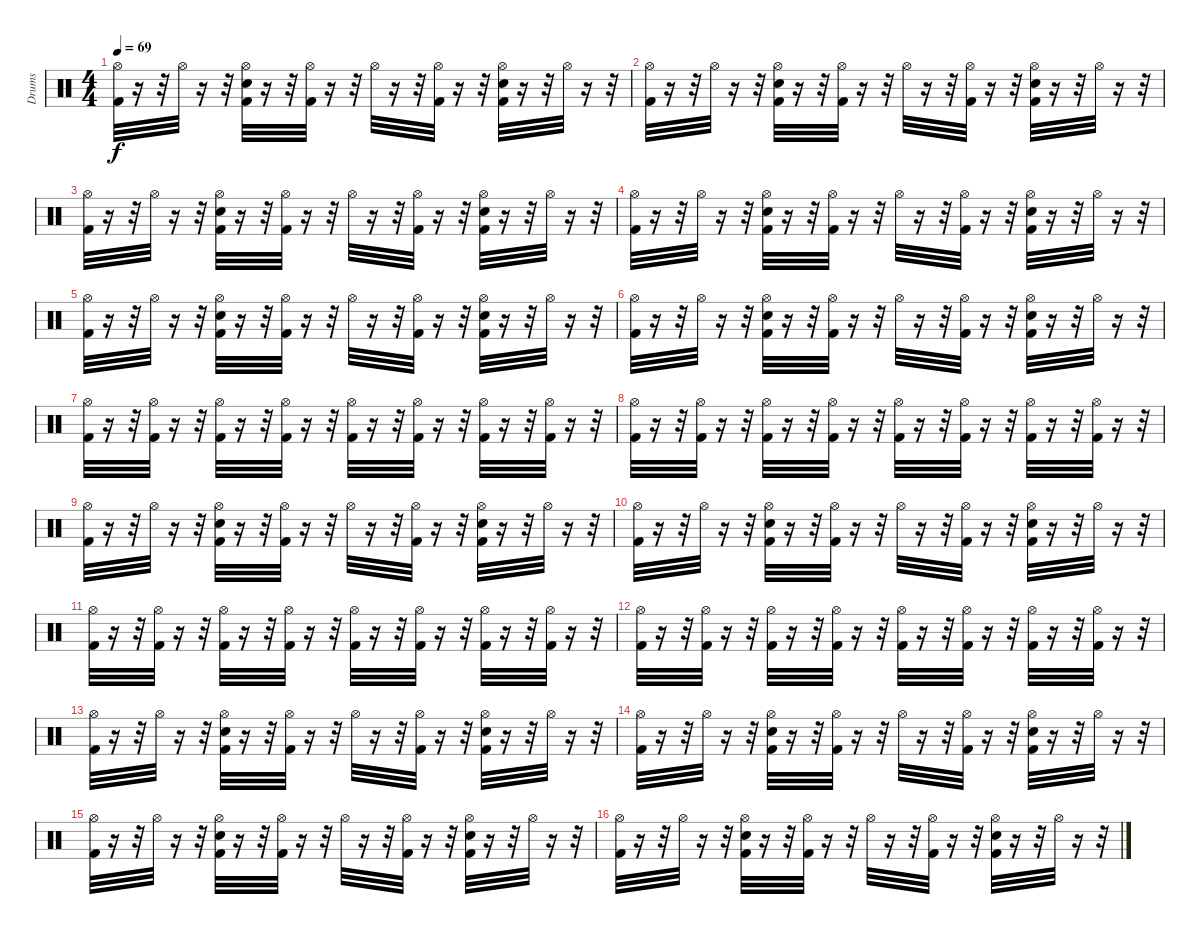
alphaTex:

\track ("Drums" "Drums") {instrument percussion}
\staff {score}
\articulation defaults
\ts (4 4)
\tempo 69
\clef neutral
\ks c
("Hi-Hat (open)" "Kick (hit) 2").32{dy f} r.16 r.32 "Hi-Hat (open)".32 r.16 r.32 ("Electric Snare (hit)" "Hi-Hat (open)" "Kick (hit) 2").32 r.16 r.32 ("Kick (hit) 2" "Hi-Hat (open)").32 r.16 r.32 "Hi-Hat (open)".32 r.16 r.32 ("Kick (hit) 2" "Hi-Hat (open)").32 r.16 r.32 ("Electric Snare (hit)" "Kick (hit) 2" "Hi-Hat (open)").32 r.16 r.32 "Hi-Hat (open)".32 r.16 r.32 |
("Hi-Hat (open)" "Kick (hit) 2").32 r.16 r.32 "Hi-Hat (open)".32 r.16 r.32 ("Electric Snare (hit)" "Hi-Hat (open)" "Kick (hit) 2").32 r.16 r.32 ("Kick (hit) 2" "Hi-Hat (open)").32 r.16 r.32 "Hi-Hat (open)".32 r.16 r.32 ("Kick (hit) 2" "Hi-Hat (open)").32 r.16 r.32 ("Electric Snare (hit)" "Kick (hit) 2" "Hi-Hat (open)").32 r.16 r.32 "Hi-Hat (open)".32 r.16 r.32 |
("Hi-Hat (open)" "Kick (hit) 2").32 r.16 r.32 "Hi-Hat (open)".32 r.16 r.32 ("Electric Snare (hit)" "Hi-Hat (open)" "Kick (hit) 2").32 r.16 r.32 ("Kick (hit) 2" "Hi-Hat (open)").32 r.16 r.32 "Hi-Hat (open)".32 r.16 r.32 ("Kick (hit) 2" "Hi-Hat (open)").32 r.16 r.32 ("Electric Snare (hit)" "Kick (hit) 2" "Hi-Hat (open)").32 r.16 r.32 "Hi-Hat (open)".32 r.16 r.32 |
("Hi-Hat (open)" "Kick (hit) 2").32 r.16 r.32 "Hi-Hat (open)".32 r.16 r.32 ("Electric Snare (hit)" "Hi-Hat (open)" "Kick (hit) 2").32 r.16 r.32 ("Kick (hit) 2" "Hi-Hat (open)").32 r.16 r.32 "Hi-Hat (open)".32 r.16 r.32 ("Kick (hit) 2" "Hi-Hat (open)").32 r.16 r.32 ("Electric Snare (hit)" "Kick (hit) 2" "Hi-Hat (open)").32 r.16 r.32 "Hi-Hat (open)".32 r.16 r.32 |
("Hi-Hat (open)" "Kick (hit) 2").32 r.16 r.32 "Hi-Hat (open)".32 r.16 r.32 ("Electric Snare (hit)" "Hi-Hat (open)" "Kick (hit) 2").32 r.16 r.32 ("Kick (hit) 2" "Hi-Hat (open)").32 r.16 r.32 "Hi-Hat (open)".32 r.16 r.32 ("Kick (hit) 2" "Hi-Hat (open)").32 r.16 r.32 ("Electric Snare (hit)" "Kick (hit) 2" "Hi-Hat (open)").32 r.16 r.32 "Hi-Hat (open)".32 r.16 r.32 |
("Hi-Hat (open)" "Kick (hit) 2").32 r.16 r.32 "Hi-Hat (open)".32 r.16 r.32 ("Electric Snare (hit)" "Hi-Hat (open)" "Kick (hit) 2").32 r.16 r.32 ("Kick (hit) 2" "Hi-Hat (open)").32 r.16 r.32 "Hi-Hat (open)".32 r.16 r.32 ("Kick (hit) 2" "Hi-Hat (open)").32 r.16 r.32 ("Electric Snare (hit)" "Kick (hit) 2" "Hi-Hat (open)").32 r.16 r.32 "Hi-Hat (open)".32 r.16 r.32 |
("Kick (hit) 2" "Hi-Hat (open)").32 r.16 r.32 ("Hi-Hat (open)" "Kick (hit) 2").32 r.16 r.32 ("Hi-Hat (open)" "Kick (hit) 2").32 r.16 r.32 ("Hi-Hat (open)" "Kick (hit) 2").32 r.16 r.32 ("Hi-Hat (open)" "Kick (hit) 2").32 r.16 r.32 ("Hi-Hat (open)" "Kick (hit) 2").32 r.16 r.32 ("Hi-Hat (open)" "Kick (hit) 2").32 r.16 r.32 ("Hi-Hat (open)" "Kick (hit) 2").32 r.16 r.32 |
("Kick (hit) 2" "Hi-Hat (open)").32 r.16 r.32 ("Hi-Hat (open)" "Kick (hit) 2").32 r.16 r.32 ("Hi-Hat (open)" "Kick (hit) 2").32 r.16 r.32 ("Hi-Hat (open)" "Kick (hit) 2").32 r.16 r.32 ("Hi-Hat (open)" "Kick (hit) 2").32 r.16 r.32 ("Hi-Hat (open)" "Kick (hit) 2").32 r.16 r.32 ("Hi-Hat (open)" "Kick (hit) 2").32 r.16 r.32 ("Hi-Hat (open)" "Kick (hit) 2").32 r.16 r.32 |
("Hi-Hat (open)" "Kick (hit) 2").32 r.16 r.32 "Hi-Hat (open)".32 r.16 r.32 ("Electric Snare (hit)" "Hi-Hat (open)" "Kick (hit) 2").32 r.16 r.32 ("Kick (hit) 2" "Hi-Hat (open)").32 r.16 r.32 "Hi-Hat (open)".32 r.16 r.32 ("Kick (hit) 2" "Hi-Hat (open)").32 r.16 r.32 ("Electric Snare (hit)" "Kick (hit) 2" "Hi-Hat (open)").32 r.16 r.32 "Hi-Hat (open)".32 r.16 r.32 |
("Hi-Hat (open)" "Kick (hit) 2").32 r.16 r.32 "Hi-Hat (open)".32 r.16 r.32 ("Electric Snare (hit)" "Hi-Hat (open)" "Kick (hit) 2").32 r.16 r.32 ("Kick (hit) 2" "Hi-Hat (open)").32 r.16 r.32 "Hi-Hat (open)".32 r.16 r.32 ("Kick (hit) 2" "Hi-Hat (open)").32 r.16 r.32 ("Electric Snare (hit)" "Kick (hit) 2" "Hi-Hat (open)").32 r.16 r.32 "Hi-Hat (open)".32 r.16 r.32 |
("Kick (hit) 2" "Hi-Hat (open)").32 r.16 r.32 ("Hi-Hat (open)" "Kick (hit) 2").32 r.16 r.32 ("Hi-Hat (open)" "Kick (hit) 2").32 r.16 r.32 ("Hi-Hat (open)" "Kick (hit) 2").32 r.16 r.32 ("Hi-Hat (open)" "Kick (hit) 2").32 r.16 r.32 ("Hi-Hat (open)" "Kick (hit) 2").32 r.16 r.32 ("Hi-Hat (open)" "Kick (hit) 2").32 r.16 r.32 ("Hi-Hat (open)" "Kick (hit) 2").32 r.16 r.32 |
("Kick (hit) 2" "Hi-Hat (open)").32 r.16 r.32 ("Hi-Hat (open)" "Kick (hit) 2").32 r.16 r.32 ("Hi-Hat (open)" "Kick (hit) 2").32 r.16 r.32 ("Hi-Hat (open)" "Kick (hit) 2").32 r.16 r.32 ("Hi-Hat (open)" "Kick (hit) 2").32 r.16 r.32 ("Hi-Hat (open)" "Kick (hit) 2").32 r.16 r.32 ("Hi-Hat (open)" "Kick (hit) 2").32 r.16 r.32 ("Hi-Hat (open)" "Kick (hit) 2").32 r.16 r.32 |
("Hi-Hat (open)" "Kick (hit) 2").32 r.16 r.32 "Hi-Hat (open)".32 r.16 r.32 ("Electric Snare (hit)" "Hi-Hat (open)" "Kick (hit) 2").32 r.16 r.32 ("Kick (hit) 2" "Hi-Hat (open)").32 r.16 r.32 "Hi-Hat (open)".32 r.16 r.32 ("Kick (hit) 2" "Hi-Hat (open)").32 r.16 r.32 ("Electric Snare (hit)" "Kick (hit) 2" "Hi-Hat (open)").32 r.16 r.32 "Hi-Hat (open)".32 r.16 r.32 |
("Hi-Hat (open)" "Kick (hit) 2").32 r.16 r.32 "Hi-Hat (open)".32 r.16 r.32 ("Electric Snare (hit)" "Hi-Hat (open)" "Kick (hit) 2").32 r.16 r.32 ("Kick (hit) 2" "Hi-Hat (open)").32 r.16 r.32 "Hi-Hat (open)".32 r.16 r.32 ("Kick (hit) 2" "Hi-Hat (open)").32 r.16 r.32 ("Electric Snare (hit)" "Kick (hit) 2" "Hi-Hat (open)").32 r.16 r.32 "Hi-Hat (open)".32 r.16 r.32 |
("Hi-Hat (open)" "Kick (hit) 2").32 r.16 r.32 "Hi-Hat (open)".32 r.16 r.32 ("Electric Snare (hit)" "Hi-Hat (open)" "Kick (hit) 2").32 r.16 r.32 ("Kick (hit) 2" "Hi-Hat (open)").32 r.16 r.32 "Hi-Hat (open)".32 r.16 r.32 ("Kick (hit) 2" "Hi-Hat (open)").32 r.16 r.32 ("Electric Snare (hit)" "Kick (hit) 2" "Hi-Hat (open)").32 r.16 r.32 "Hi-Hat (open)".32 r.16 r.32 |
("Hi-Hat (open)" "Kick (hit) 2").32 r.16 r.32 "Hi-Hat (open)".32 r.16 r.32 ("Electric Snare (hit)" "Hi-Hat (open)" "Kick (hit) 2").32 r.16 r.32 ("Kick (hit) 2" "Hi-Hat (open)").32 r.16 r.32 "Hi-Hat (open)".32 r.16 r.32 ("Kick (hit) 2" "Hi-Hat (open)").32 r.16 r.32 ("Electric Snare (hit)" "Kick (hit) 2" "Hi-Hat (open)").32 r.16 r.32 "Hi-Hat (open)".32 r.16 r.32
